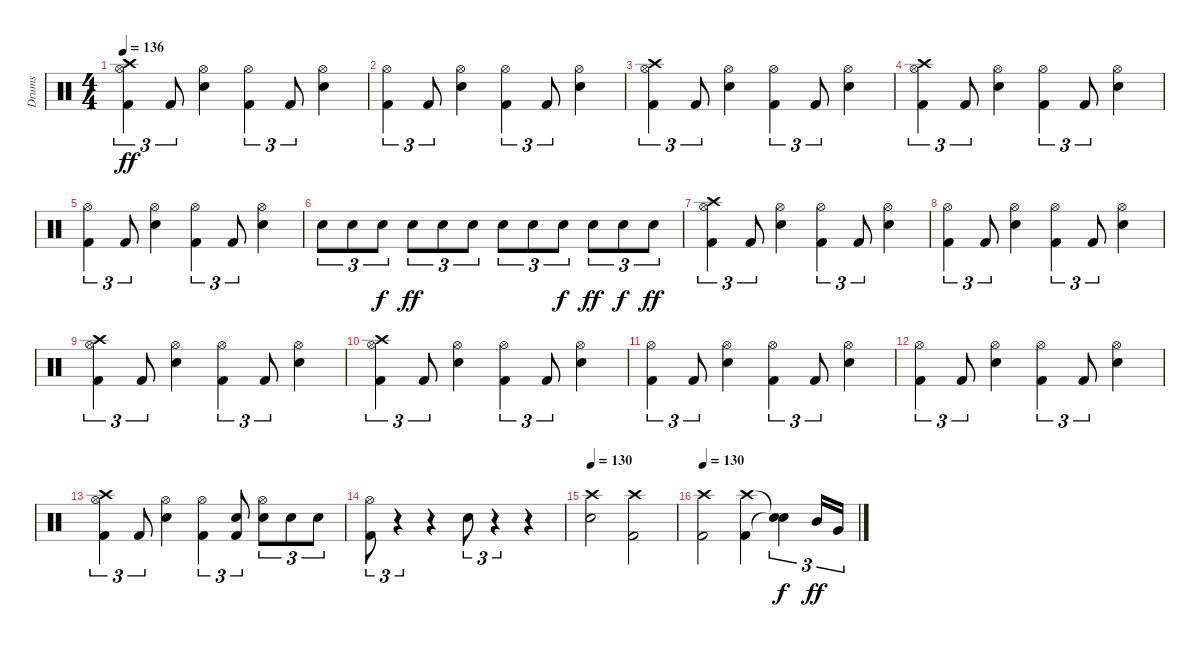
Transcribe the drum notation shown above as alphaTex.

\track ("Drums" "Drums") {instrument percussion}
\staff {score}
\articulation defaults
\ts (4 4)
\tempo 136
\clef neutral
\ks c
("Kick (hit) 2" "Crash high (hit)" "Hi-Hat (open)").4{tu (3 2) dy ff} "Kick (hit) 2".8{tu (3 2)} ("Snare (hit) 2" "Hi-Hat (open)").4 ("Hi-Hat (open)" "Kick (hit) 2").4{tu (3 2)} "Kick (hit) 2".8{tu (3 2)} ("Hi-Hat (open)" "Snare (hit) 2").4 |
("Kick (hit) 2" "Hi-Hat (open)").4{tu (3 2)} "Kick (hit) 2".8{tu (3 2)} ("Hi-Hat (open)" "Snare (hit) 2").4 ("Hi-Hat (open)" "Kick (hit) 2").4{tu (3 2)} "Kick (hit) 2".8{tu (3 2)} ("Snare (hit) 2" "Hi-Hat (open)").4 |
("Kick (hit) 2" "Crash high (hit)" "Hi-Hat (open)").4{tu (3 2)} "Kick (hit) 2".8{tu (3 2)} ("Snare (hit) 2" "Hi-Hat (open)").4 ("Hi-Hat (open)" "Kick (hit) 2").4{tu (3 2)} "Kick (hit) 2".8{tu (3 2)} ("Hi-Hat (open)" "Snare (hit) 2").4 |
("Kick (hit) 2" "Crash high (hit)" "Hi-Hat (open)").4{tu (3 2)} "Kick (hit) 2".8{tu (3 2)} ("Snare (hit) 2" "Hi-Hat (open)").4 ("Hi-Hat (open)" "Kick (hit) 2").4{tu (3 2)} "Kick (hit) 2".8{tu (3 2)} ("Hi-Hat (open)" "Snare (hit) 2").4 |
("Kick (hit) 2" "Hi-Hat (open)").4{tu (3 2)} "Kick (hit) 2".8{tu (3 2)} ("Hi-Hat (open)" "Snare (hit) 2").4 ("Hi-Hat (open)" "Kick (hit) 2").4{tu (3 2)} "Kick (hit) 2".8{tu (3 2)} ("Snare (hit) 2" "Hi-Hat (open)").4 |
"Snare (hit) 2".8{tu (3 2)} "Snare (hit) 2".8{tu (3 2)} "Snare (hit) 2".8{tu (3 2) dy f} "Snare (hit) 2".8{tu (3 2) dy ff} "Snare (hit) 2".8{tu (3 2)} "Snare (hit) 2".8{tu (3 2)} "Snare (hit) 2".8{tu (3 2)} "Snare (hit) 2".8{tu (3 2)} "Snare (hit) 2".8{tu (3 2) dy f} "Snare (hit) 2".8{tu (3 2) dy ff} "Snare (hit) 2".8{tu (3 2) dy f} "Snare (hit) 2".8{tu (3 2) dy ff} |
("Kick (hit) 2" "Crash high (hit)" "Hi-Hat (open)").4{tu (3 2)} "Kick (hit) 2".8{tu (3 2)} ("Snare (hit) 2" "Hi-Hat (open)").4 ("Hi-Hat (open)" "Kick (hit) 2").4{tu (3 2)} "Kick (hit) 2".8{tu (3 2)} ("Hi-Hat (open)" "Snare (hit) 2").4 |
("Kick (hit) 2" "Hi-Hat (open)").4{tu (3 2)} "Kick (hit) 2".8{tu (3 2)} ("Hi-Hat (open)" "Snare (hit) 2").4 ("Hi-Hat (open)" "Kick (hit) 2").4{tu (3 2)} "Kick (hit) 2".8{tu (3 2)} ("Snare (hit) 2" "Hi-Hat (open)").4 |
("Kick (hit) 2" "Crash high (hit)" "Hi-Hat (open)").4{tu (3 2)} "Kick (hit) 2".8{tu (3 2)} ("Snare (hit) 2" "Hi-Hat (open)").4 ("Hi-Hat (open)" "Kick (hit) 2").4{tu (3 2)} "Kick (hit) 2".8{tu (3 2)} ("Hi-Hat (open)" "Snare (hit) 2").4 |
("Kick (hit) 2" "Crash high (hit)" "Hi-Hat (open)").4{tu (3 2)} "Kick (hit) 2".8{tu (3 2)} ("Snare (hit) 2" "Hi-Hat (open)").4 ("Hi-Hat (open)" "Kick (hit) 2").4{tu (3 2)} "Kick (hit) 2".8{tu (3 2)} ("Hi-Hat (open)" "Snare (hit) 2").4 |
("Kick (hit) 2" "Hi-Hat (open)").4{tu (3 2)} "Kick (hit) 2".8{tu (3 2)} ("Hi-Hat (open)" "Snare (hit) 2").4 ("Hi-Hat (open)" "Kick (hit) 2").4{tu (3 2)} "Kick (hit) 2".8{tu (3 2)} ("Snare (hit) 2" "Hi-Hat (open)").4 |
("Kick (hit) 2" "Hi-Hat (open)").4{tu (3 2)} "Kick (hit) 2".8{tu (3 2)} ("Hi-Hat (open)" "Snare (hit) 2").4 ("Hi-Hat (open)" "Kick (hit) 2").4{tu (3 2)} "Kick (hit) 2".8{tu (3 2)} ("Snare (hit) 2" "Hi-Hat (open)").4 |
("Crash high (hit)" "Kick (hit) 2" "Hi-Hat (open)").4{tu (3 2)} "Kick (hit) 2".8{tu (3 2)} ("Hi-Hat (open)" "Snare (hit) 2").4 ("Kick (hit) 2" "Hi-Hat (open)").4{tu (3 2)} ("Snare (hit) 2" "Kick (hit) 2").8{tu (3 2)} ("Snare (hit) 2" "Hi-Hat (open)").8{tu (3 2)} "Snare (hit) 2".8{tu (3 2)} "Snare (hit) 2".8{tu (3 2)} |
("Hi-Hat (open)" "Kick (hit) 2").8{tu (3 2)} r.4{tu (3 2)} r.4 "Snare (hit) 2".8{tu (3 2)} r.4{tu (3 2)} r.4 |
\tempo 130
("Snare (hit) 2" "Crash high (hit)").2 ("Kick (hit) 2" "Crash high (hit)").2 |
\tempo 130
("Kick (hit) 2" "Crash high (hit)").2 ("Kick (hit) 2" "Crash high (hit)").4 ("Snare (hit)"{t} "Snare (hit)"{t}).4{tu (3 2) dy f} "Mid Tom (hit)".16{tu (3 2) dy ff} "Very Low Tom (hit)".16{tu (3 2)}
